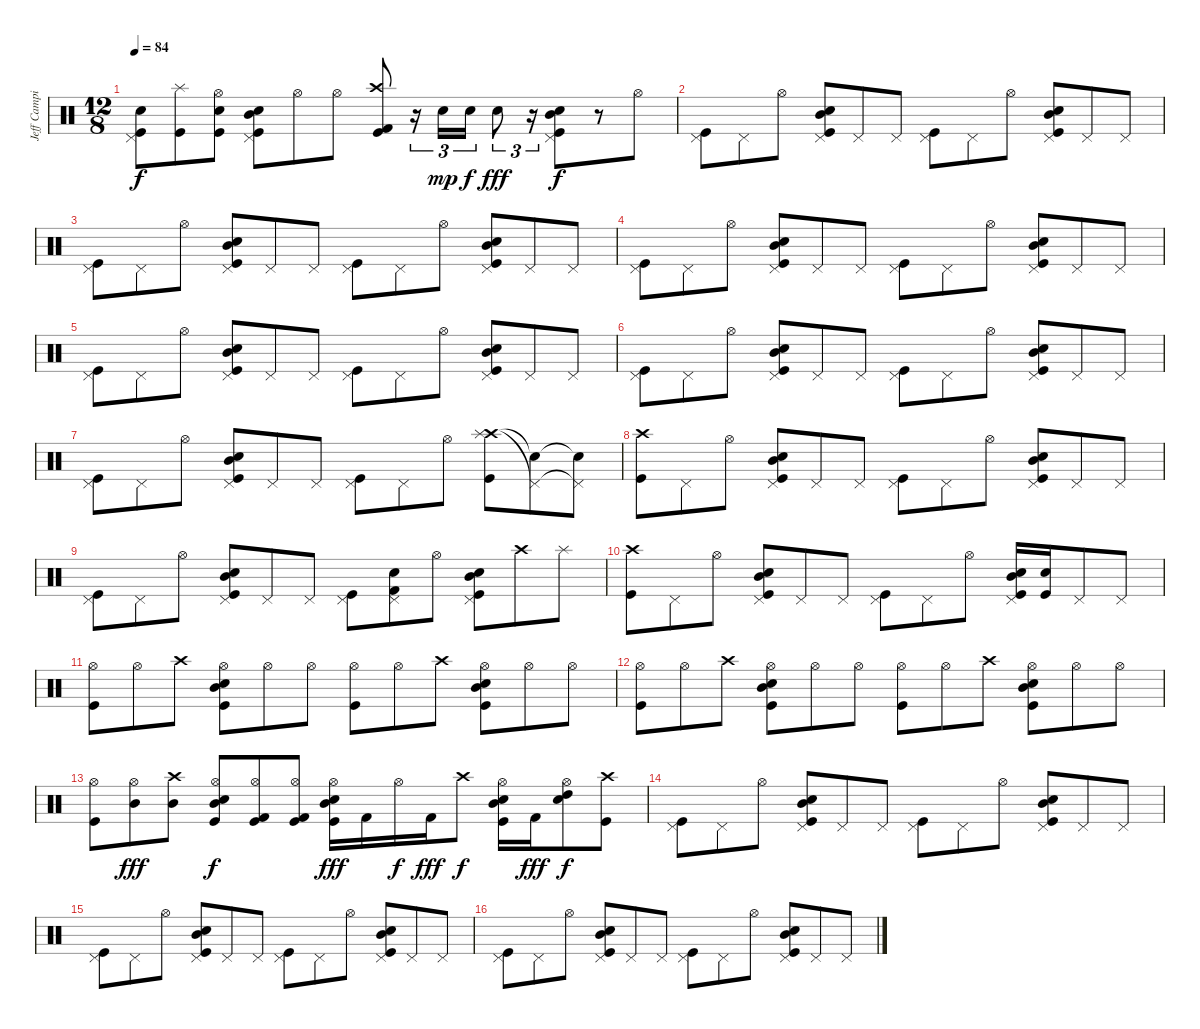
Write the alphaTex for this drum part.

\track ("Jeff Campitelli" "Jeff Campi") {instrument percussion}
\staff {score}
\articulation defaults
\ts (12 8)
\tempo 84
\clef neutral
\ks c
("Pedal Hi-Hat (hit)" "Snare (hit) 2" "Kick (hit)").8{dy f} ("Splash (hit)" "Kick (hit)").8 ("Hi-Hat (open)" "Snare (hit) 2" "Kick (hit)").8 ("Pedal Hi-Hat (hit)" "Snare (hit) 2" "Mid Tom (hit)" "Kick (hit)").8 "Hi-Hat (open)".8 "Hi-Hat (open)".8 ("Crash high (hit)" "Kick (hit) 2" "Kick (hit)").8 r.16{tu (3 2)} "Snare (hit) 2".16{tu (3 2) dy mp} "Snare (hit) 2".16{tu (3 2) dy f} "Snare (hit) 2".8{tu (3 2) dy fff} r.16{tu (3 2)} ("Pedal Hi-Hat (hit)" "Snare (hit) 2" "Mid Tom (hit)" "Kick (hit)").8{dy f} r.8 "Hi-Hat (open)".8 |
("Pedal Hi-Hat (hit)" "Kick (hit)").8 "Pedal Hi-Hat (hit)".8 "Hi-Hat (open)".8 ("Pedal Hi-Hat (hit)" "Snare (hit) 2" "Mid Tom (hit)" "Kick (hit)").8 "Pedal Hi-Hat (hit)".8 "Pedal Hi-Hat (hit)".8 ("Pedal Hi-Hat (hit)" "Kick (hit)").8 "Pedal Hi-Hat (hit)".8 "Hi-Hat (open)".8 ("Pedal Hi-Hat (hit)" "Snare (hit) 2" "Mid Tom (hit)" "Kick (hit)").8 "Pedal Hi-Hat (hit)".8 "Pedal Hi-Hat (hit)".8 |
("Pedal Hi-Hat (hit)" "Kick (hit)").8 "Pedal Hi-Hat (hit)".8 "Hi-Hat (open)".8 ("Pedal Hi-Hat (hit)" "Snare (hit) 2" "Mid Tom (hit)" "Kick (hit)").8 "Pedal Hi-Hat (hit)".8 "Pedal Hi-Hat (hit)".8 ("Pedal Hi-Hat (hit)" "Kick (hit)").8 "Pedal Hi-Hat (hit)".8 "Hi-Hat (open)".8 ("Pedal Hi-Hat (hit)" "Snare (hit) 2" "Mid Tom (hit)" "Kick (hit)").8 "Pedal Hi-Hat (hit)".8 "Pedal Hi-Hat (hit)".8 |
("Pedal Hi-Hat (hit)" "Kick (hit)").8 "Pedal Hi-Hat (hit)".8 "Hi-Hat (open)".8 ("Pedal Hi-Hat (hit)" "Snare (hit) 2" "Mid Tom (hit)" "Kick (hit)").8 "Pedal Hi-Hat (hit)".8 "Pedal Hi-Hat (hit)".8 ("Pedal Hi-Hat (hit)" "Kick (hit)").8 "Pedal Hi-Hat (hit)".8 "Hi-Hat (open)".8 ("Pedal Hi-Hat (hit)" "Snare (hit) 2" "Mid Tom (hit)" "Kick (hit)").8 "Pedal Hi-Hat (hit)".8 "Pedal Hi-Hat (hit)".8 |
("Pedal Hi-Hat (hit)" "Kick (hit)").8 "Pedal Hi-Hat (hit)".8 "Hi-Hat (open)".8 ("Pedal Hi-Hat (hit)" "Snare (hit) 2" "Mid Tom (hit)" "Kick (hit)").8 "Pedal Hi-Hat (hit)".8 "Pedal Hi-Hat (hit)".8 ("Pedal Hi-Hat (hit)" "Kick (hit)").8 "Pedal Hi-Hat (hit)".8 "Hi-Hat (open)".8 ("Pedal Hi-Hat (hit)" "Snare (hit) 2" "Mid Tom (hit)" "Kick (hit)").8 "Pedal Hi-Hat (hit)".8 "Pedal Hi-Hat (hit)".8 |
("Pedal Hi-Hat (hit)" "Kick (hit)").8 "Pedal Hi-Hat (hit)".8 "Hi-Hat (open)".8 ("Pedal Hi-Hat (hit)" "Snare (hit) 2" "Mid Tom (hit)" "Kick (hit)").8 "Pedal Hi-Hat (hit)".8 "Pedal Hi-Hat (hit)".8 ("Pedal Hi-Hat (hit)" "Kick (hit)").8 "Pedal Hi-Hat (hit)".8 "Hi-Hat (open)".8 ("Pedal Hi-Hat (hit)" "Snare (hit) 2" "Mid Tom (hit)" "Kick (hit)").8 "Pedal Hi-Hat (hit)".8 "Pedal Hi-Hat (hit)".8 |
("Pedal Hi-Hat (hit)" "Kick (hit)").8 "Pedal Hi-Hat (hit)".8 "Hi-Hat (open)".8 ("Pedal Hi-Hat (hit)" "Snare (hit) 2" "Mid Tom (hit)" "Kick (hit)").8 "Pedal Hi-Hat (hit)".8 "Pedal Hi-Hat (hit)".8 ("Pedal Hi-Hat (hit)" "Kick (hit)").8 "Pedal Hi-Hat (hit)".8 "Hi-Hat (open)".8 ("Crash high (hit)" "Splash (hit)" "Kick (hit)").8 ("Pedal Hi-Hat (hit)"{t} "Snare (hit)"{t}).8 ("Pedal Hi-Hat (hit)"{t} "Snare (hit)"{t}).8 |
("Crash high (hit)" "Kick (hit)").8 "Pedal Hi-Hat (hit)".8 "Hi-Hat (open)".8 ("Pedal Hi-Hat (hit)" "Snare (hit) 2" "Mid Tom (hit)" "Kick (hit)").8 "Pedal Hi-Hat (hit)".8 "Pedal Hi-Hat (hit)".8 ("Pedal Hi-Hat (hit)" "Kick (hit)").8 "Pedal Hi-Hat (hit)".8 "Hi-Hat (open)".8 ("Pedal Hi-Hat (hit)" "Snare (hit) 2" "Mid Tom (hit)" "Kick (hit)").8 "Pedal Hi-Hat (hit)".8 "Pedal Hi-Hat (hit)".8 |
("Pedal Hi-Hat (hit)" "Kick (hit)").8 "Pedal Hi-Hat (hit)".8 "Hi-Hat (open)".8 ("Pedal Hi-Hat (hit)" "Snare (hit) 2" "Mid Tom (hit)" "Kick (hit)").8 "Pedal Hi-Hat (hit)".8 "Pedal Hi-Hat (hit)".8 ("Pedal Hi-Hat (hit)" "Kick (hit)").8 ("Pedal Hi-Hat (hit)" "Snare (hit) 2" "Kick (hit) 2").8 "Hi-Hat (open)".8 ("Pedal Hi-Hat (hit)" "Snare (hit) 2" "Mid Tom (hit)" "Kick (hit)").8 "Crash high (hit)".8 "Splash (hit)".8 |
("Crash high (hit)" "Kick (hit)").8 "Pedal Hi-Hat (hit)".8 "Hi-Hat (open)".8 ("Pedal Hi-Hat (hit)" "Snare (hit) 2" "Mid Tom (hit)" "Kick (hit)").8 "Pedal Hi-Hat (hit)".8 "Pedal Hi-Hat (hit)".8 ("Pedal Hi-Hat (hit)" "Kick (hit)").8 "Pedal Hi-Hat (hit)".8 "Hi-Hat (open)".8 ("Pedal Hi-Hat (hit)" "Snare (hit) 2" "Mid Tom (hit)" "Kick (hit)").16 ("Snare (hit) 2" "Kick (hit)").16 "Pedal Hi-Hat (hit)".8 "Pedal Hi-Hat (hit)".8 |
("Hi-Hat (open)" "Kick (hit)").8 "Hi-Hat (open)".8 "Crash high (hit)".8 ("Hi-Hat (open)" "Snare (hit) 2" "Mid Tom (hit)" "Kick (hit)").8 "Hi-Hat (open)".8 "Hi-Hat (open)".8 ("Hi-Hat (open)" "Kick (hit)").8 "Hi-Hat (open)".8 "Crash high (hit)".8 ("Hi-Hat (open)" "Snare (hit) 2" "Mid Tom (hit)" "Kick (hit)").8 "Hi-Hat (open)".8 "Hi-Hat (open)".8 |
("Hi-Hat (open)" "Kick (hit)").8 "Hi-Hat (open)".8 "Crash high (hit)".8 ("Hi-Hat (open)" "Snare (hit) 2" "Mid Tom (hit)" "Kick (hit)").8 "Hi-Hat (open)".8 "Hi-Hat (open)".8 ("Hi-Hat (open)" "Kick (hit)").8 "Hi-Hat (open)".8 "Crash high (hit)".8 ("Hi-Hat (open)" "Snare (hit) 2" "Mid Tom (hit)" "Kick (hit)").8 "Hi-Hat (open)".8 "Hi-Hat (open)".8 |
("Hi-Hat (open)" "Kick (hit)").8 ("Hi-Hat (open)" "Mid Tom (hit)").8{dy fff} ("Crash high (hit)" "Mid Tom (hit)").8 ("Hi-Hat (open)" "Snare (hit) 2" "Mid Tom (hit)" "Kick (hit)").8{dy f} ("Hi-Hat (open)" "Kick (hit) 2" "Kick (hit)").8 ("Hi-Hat (open)" "Kick (hit) 2" "Kick (hit)").8 ("Hi-Hat (open)" "Snare (hit) 2" "Mid Tom (hit)" "Kick (hit)").16{dy fff} "Kick (hit) 2".16 "Hi-Hat (open)".16{dy f} "Kick (hit) 2".16{dy fff} "Crash high (hit)".8{dy f} ("Hi-Hat (open)" "Snare (hit) 2" "Mid Tom (hit)" "Kick (hit)").16 "Kick (hit) 2".16{dy fff} ("Hi-Hat (open)" "Snare (hit) 2" "High Tom (hit)").8{dy f} ("Crash high (hit)" "Kick (hit)").8 |
("Pedal Hi-Hat (hit)" "Kick (hit)").8{volume 14} "Pedal Hi-Hat (hit)".8 "Hi-Hat (open)".8 ("Pedal Hi-Hat (hit)" "Snare (hit) 2" "Mid Tom (hit)" "Kick (hit)").8 "Pedal Hi-Hat (hit)".8 "Pedal Hi-Hat (hit)".8 ("Pedal Hi-Hat (hit)" "Kick (hit)").8 "Pedal Hi-Hat (hit)".8 "Hi-Hat (open)".8 ("Pedal Hi-Hat (hit)" "Snare (hit) 2" "Mid Tom (hit)" "Kick (hit)").8 "Pedal Hi-Hat (hit)".8 "Pedal Hi-Hat (hit)".8 |
("Pedal Hi-Hat (hit)" "Kick (hit)").8 "Pedal Hi-Hat (hit)".8 "Hi-Hat (open)".8 ("Pedal Hi-Hat (hit)" "Snare (hit) 2" "Mid Tom (hit)" "Kick (hit)").8 "Pedal Hi-Hat (hit)".8 "Pedal Hi-Hat (hit)".8 ("Pedal Hi-Hat (hit)" "Kick (hit)").8 "Pedal Hi-Hat (hit)".8 "Hi-Hat (open)".8 ("Pedal Hi-Hat (hit)" "Snare (hit) 2" "Mid Tom (hit)" "Kick (hit)").8 "Pedal Hi-Hat (hit)".8 "Pedal Hi-Hat (hit)".8 |
("Pedal Hi-Hat (hit)" "Kick (hit)").8 "Pedal Hi-Hat (hit)".8 "Hi-Hat (open)".8 ("Pedal Hi-Hat (hit)" "Snare (hit) 2" "Mid Tom (hit)" "Kick (hit)").8 "Pedal Hi-Hat (hit)".8 "Pedal Hi-Hat (hit)".8 ("Pedal Hi-Hat (hit)" "Kick (hit)").8 "Pedal Hi-Hat (hit)".8 "Hi-Hat (open)".8 ("Pedal Hi-Hat (hit)" "Snare (hit) 2" "Mid Tom (hit)" "Kick (hit)").8 "Pedal Hi-Hat (hit)".8 "Pedal Hi-Hat (hit)".8
